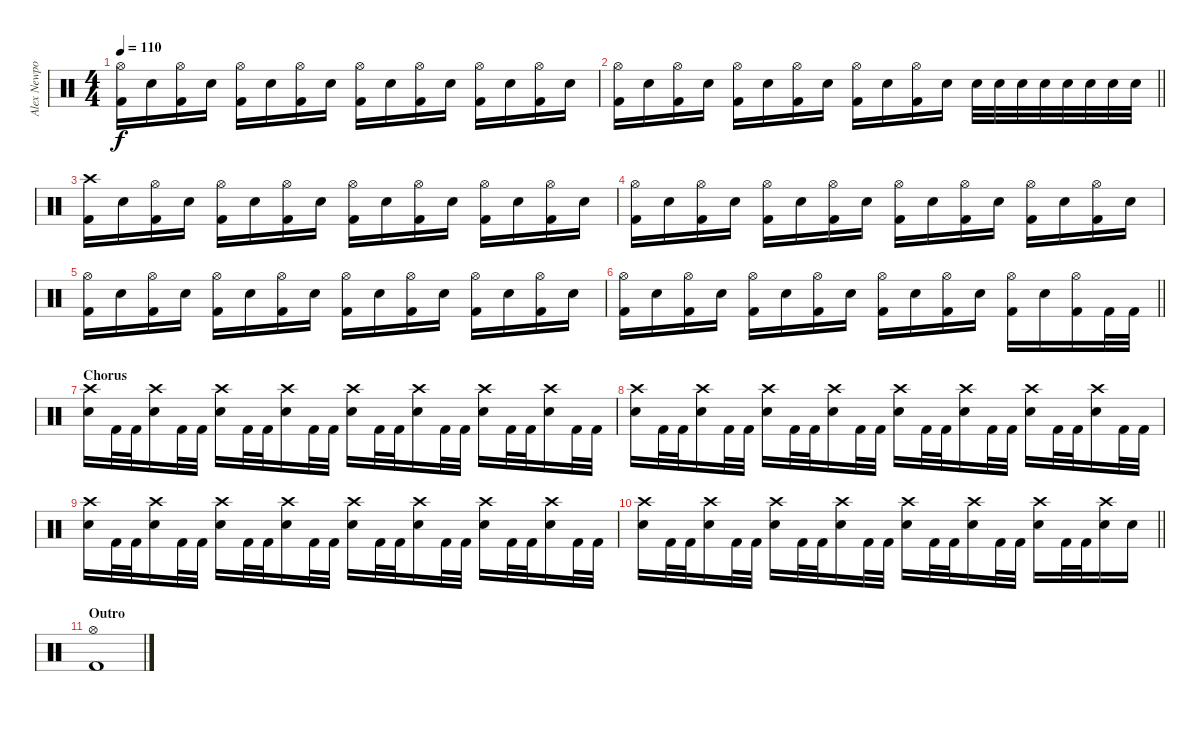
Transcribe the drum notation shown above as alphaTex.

\track ("Alex Newport" "Alex Newpo") {instrument percussion}
\staff {score}
\articulation defaults
\ts (4 4)
\tempo 110
\clef neutral
\ks c
("Hi-Hat (open)" "Kick (hit) 2").16{dy f} "Electric Snare (hit)".16 ("Hi-Hat (open)" "Kick (hit) 2").16 "Electric Snare (hit)".16 ("Hi-Hat (open)" "Kick (hit) 2").16 "Electric Snare (hit)".16 ("Hi-Hat (open)" "Kick (hit) 2").16 "Electric Snare (hit)".16 ("Hi-Hat (open)" "Kick (hit) 2").16 "Electric Snare (hit)".16 ("Hi-Hat (open)" "Kick (hit) 2").16 "Electric Snare (hit)".16 ("Hi-Hat (open)" "Kick (hit) 2").16 "Electric Snare (hit)".16 ("Hi-Hat (open)" "Kick (hit) 2").16 "Electric Snare (hit)".16 |
\barLineRight lightlight
("Hi-Hat (open)" "Kick (hit) 2").16 "Electric Snare (hit)".16 ("Hi-Hat (open)" "Kick (hit) 2").16 "Electric Snare (hit)".16 ("Hi-Hat (open)" "Kick (hit) 2").16 "Electric Snare (hit)".16 ("Hi-Hat (open)" "Kick (hit) 2").16 "Electric Snare (hit)".16 ("Hi-Hat (open)" "Kick (hit) 2").16 "Electric Snare (hit)".16 ("Hi-Hat (open)" "Kick (hit) 2").16 "Electric Snare (hit)".16 "Electric Snare (hit)".32 "Electric Snare (hit)".32 "Electric Snare (hit)".32 "Electric Snare (hit)".32 "Electric Snare (hit)".32 "Electric Snare (hit)".32 "Electric Snare (hit)".32 "Electric Snare (hit)".32 |
("Crash high (hit)" "Kick (hit) 2").16 "Electric Snare (hit)".16 ("Hi-Hat (open)" "Kick (hit) 2").16 "Electric Snare (hit)".16 ("Hi-Hat (open)" "Kick (hit) 2").16 "Electric Snare (hit)".16 ("Hi-Hat (open)" "Kick (hit) 2").16 "Electric Snare (hit)".16 ("Hi-Hat (open)" "Kick (hit) 2").16 "Electric Snare (hit)".16 ("Hi-Hat (open)" "Kick (hit) 2").16 "Electric Snare (hit)".16 ("Hi-Hat (open)" "Kick (hit) 2").16 "Electric Snare (hit)".16 ("Hi-Hat (open)" "Kick (hit) 2").16 "Electric Snare (hit)".16 |
("Hi-Hat (open)" "Kick (hit) 2").16 "Electric Snare (hit)".16 ("Hi-Hat (open)" "Kick (hit) 2").16 "Electric Snare (hit)".16 ("Hi-Hat (open)" "Kick (hit) 2").16 "Electric Snare (hit)".16 ("Hi-Hat (open)" "Kick (hit) 2").16 "Electric Snare (hit)".16 ("Hi-Hat (open)" "Kick (hit) 2").16 "Electric Snare (hit)".16 ("Hi-Hat (open)" "Kick (hit) 2").16 "Electric Snare (hit)".16 ("Hi-Hat (open)" "Kick (hit) 2").16 "Electric Snare (hit)".16 ("Hi-Hat (open)" "Kick (hit) 2").16 "Electric Snare (hit)".16 |
("Hi-Hat (open)" "Kick (hit) 2").16 "Electric Snare (hit)".16 ("Hi-Hat (open)" "Kick (hit) 2").16 "Electric Snare (hit)".16 ("Hi-Hat (open)" "Kick (hit) 2").16 "Electric Snare (hit)".16 ("Hi-Hat (open)" "Kick (hit) 2").16 "Electric Snare (hit)".16 ("Hi-Hat (open)" "Kick (hit) 2").16 "Electric Snare (hit)".16 ("Hi-Hat (open)" "Kick (hit) 2").16 "Electric Snare (hit)".16 ("Hi-Hat (open)" "Kick (hit) 2").16 "Electric Snare (hit)".16 ("Hi-Hat (open)" "Kick (hit) 2").16 "Electric Snare (hit)".16 |
\barLineRight lightlight
("Hi-Hat (open)" "Kick (hit) 2").16 "Electric Snare (hit)".16 ("Hi-Hat (open)" "Kick (hit) 2").16 "Electric Snare (hit)".16 ("Hi-Hat (open)" "Kick (hit) 2").16 "Electric Snare (hit)".16 ("Hi-Hat (open)" "Kick (hit) 2").16 "Electric Snare (hit)".16 ("Hi-Hat (open)" "Kick (hit) 2").16 "Electric Snare (hit)".16 ("Hi-Hat (open)" "Kick (hit) 2").16 "Electric Snare (hit)".16 ("Hi-Hat (open)" "Kick (hit) 2").16 "Electric Snare (hit)".16 ("Hi-Hat (open)" "Kick (hit) 2").16 "Kick (hit) 2".32 "Kick (hit) 2".32 |
\section ("" "Chorus")
("Crash high (hit)" "Electric Snare (hit)").16 "Kick (hit) 2".32 "Kick (hit) 2".32 ("Crash high (hit)" "Electric Snare (hit)").16 "Kick (hit) 2".32 "Kick (hit) 2".32 ("Crash high (hit)" "Electric Snare (hit)").16 "Kick (hit) 2".32 "Kick (hit) 2".32 ("Crash high (hit)" "Electric Snare (hit)").16 "Kick (hit) 2".32 "Kick (hit) 2".32 ("Crash high (hit)" "Electric Snare (hit)").16 "Kick (hit) 2".32 "Kick (hit) 2".32 ("Crash high (hit)" "Electric Snare (hit)").16 "Kick (hit) 2".32 "Kick (hit) 2".32 ("Crash high (hit)" "Electric Snare (hit)").16 "Kick (hit) 2".32 "Kick (hit) 2".32 ("Crash high (hit)" "Electric Snare (hit)").16 "Kick (hit) 2".32 "Kick (hit) 2".32 |
("Crash high (hit)" "Electric Snare (hit)").16 "Kick (hit) 2".32 "Kick (hit) 2".32 ("Crash high (hit)" "Electric Snare (hit)").16 "Kick (hit) 2".32 "Kick (hit) 2".32 ("Crash high (hit)" "Electric Snare (hit)").16 "Kick (hit) 2".32 "Kick (hit) 2".32 ("Crash high (hit)" "Electric Snare (hit)").16 "Kick (hit) 2".32 "Kick (hit) 2".32 ("Crash high (hit)" "Electric Snare (hit)").16 "Kick (hit) 2".32 "Kick (hit) 2".32 ("Crash high (hit)" "Electric Snare (hit)").16 "Kick (hit) 2".32 "Kick (hit) 2".32 ("Crash high (hit)" "Electric Snare (hit)").16 "Kick (hit) 2".32 "Kick (hit) 2".32 ("Crash high (hit)" "Electric Snare (hit)").16 "Kick (hit) 2".32 "Kick (hit) 2".32 |
("Crash high (hit)" "Electric Snare (hit)").16 "Kick (hit) 2".32 "Kick (hit) 2".32 ("Crash high (hit)" "Electric Snare (hit)").16 "Kick (hit) 2".32 "Kick (hit) 2".32 ("Crash high (hit)" "Electric Snare (hit)").16 "Kick (hit) 2".32 "Kick (hit) 2".32 ("Crash high (hit)" "Electric Snare (hit)").16 "Kick (hit) 2".32 "Kick (hit) 2".32 ("Crash high (hit)" "Electric Snare (hit)").16 "Kick (hit) 2".32 "Kick (hit) 2".32 ("Crash high (hit)" "Electric Snare (hit)").16 "Kick (hit) 2".32 "Kick (hit) 2".32 ("Crash high (hit)" "Electric Snare (hit)").16 "Kick (hit) 2".32 "Kick (hit) 2".32 ("Crash high (hit)" "Electric Snare (hit)").16 "Kick (hit) 2".32 "Kick (hit) 2".32 |
\barLineRight lightlight
("Crash high (hit)" "Electric Snare (hit)").16 "Kick (hit) 2".32 "Kick (hit) 2".32 ("Crash high (hit)" "Electric Snare (hit)").16 "Kick (hit) 2".32 "Kick (hit) 2".32 ("Crash high (hit)" "Electric Snare (hit)").16 "Kick (hit) 2".32 "Kick (hit) 2".32 ("Crash high (hit)" "Electric Snare (hit)").16 "Kick (hit) 2".32 "Kick (hit) 2".32 ("Crash high (hit)" "Electric Snare (hit)").16 "Kick (hit) 2".32 "Kick (hit) 2".32 ("Crash high (hit)" "Electric Snare (hit)").16 "Kick (hit) 2".32 "Kick (hit) 2".32 ("Crash high (hit)" "Electric Snare (hit)").16 "Kick (hit) 2".32 "Kick (hit) 2".32 ("Crash high (hit)" "Electric Snare (hit)").16 "Electric Snare (hit)".16 |
\section ("" "Outro")
("Hi-Hat (open)" "Kick (hit) 2").1
